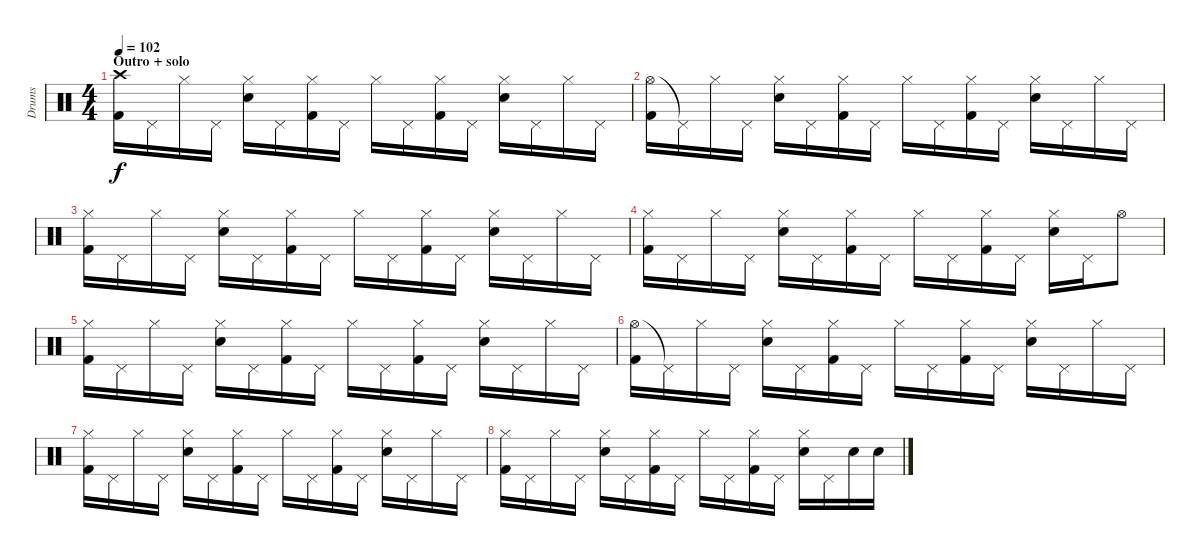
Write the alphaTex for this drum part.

\track ("Drums" "Drums") {instrument percussion}
\staff {score}
\articulation defaults
\ts (4 4)
\section ("" "Outro + solo")
\tempo 102
\clef neutral
\ks c
("Crash high (hit)" "Kick (hit) 2").16{dy f} "Pedal Hi-Hat (hit)".16 "Hi-Hat (closed)".16 "Pedal Hi-Hat (hit)".16 ("Hi-Hat (closed)" "Electric Snare (hit)").16 "Pedal Hi-Hat (hit)".16 ("Hi-Hat (closed)" "Kick (hit) 2").16 "Pedal Hi-Hat (hit)".16 "Hi-Hat (closed)".16 "Pedal Hi-Hat (hit)".16 ("Hi-Hat (closed)" "Kick (hit) 2").16 "Pedal Hi-Hat (hit)".16 ("Hi-Hat (closed)" "Electric Snare (hit)").16 "Pedal Hi-Hat (hit)".16 "Hi-Hat (closed)".16 "Pedal Hi-Hat (hit)".16 |
("Hi-Hat (open)" "Kick (hit) 2").16 "Pedal Hi-Hat (hit)"{t}.16 "Hi-Hat (closed)".16 "Pedal Hi-Hat (hit)".16 ("Hi-Hat (closed)" "Electric Snare (hit)").16 "Pedal Hi-Hat (hit)".16 ("Hi-Hat (closed)" "Kick (hit) 2").16 "Pedal Hi-Hat (hit)".16 "Hi-Hat (closed)".16 "Pedal Hi-Hat (hit)".16 ("Hi-Hat (closed)" "Kick (hit) 2").16 "Pedal Hi-Hat (hit)".16 ("Hi-Hat (closed)" "Electric Snare (hit)").16 "Pedal Hi-Hat (hit)".16 "Hi-Hat (closed)".16 "Pedal Hi-Hat (hit)".16 |
("Hi-Hat (closed)" "Kick (hit) 2").16 "Pedal Hi-Hat (hit)".16 "Hi-Hat (closed)".16 "Pedal Hi-Hat (hit)".16 ("Hi-Hat (closed)" "Electric Snare (hit)").16 "Pedal Hi-Hat (hit)".16 ("Hi-Hat (closed)" "Kick (hit) 2").16 "Pedal Hi-Hat (hit)".16 "Hi-Hat (closed)".16 "Pedal Hi-Hat (hit)".16 ("Hi-Hat (closed)" "Kick (hit) 2").16 "Pedal Hi-Hat (hit)".16 ("Hi-Hat (closed)" "Electric Snare (hit)").16 "Pedal Hi-Hat (hit)".16 "Hi-Hat (closed)".16 "Pedal Hi-Hat (hit)".16 |
("Hi-Hat (closed)" "Kick (hit) 2").16 "Pedal Hi-Hat (hit)".16 "Hi-Hat (closed)".16 "Pedal Hi-Hat (hit)".16 ("Hi-Hat (closed)" "Electric Snare (hit)").16 "Pedal Hi-Hat (hit)".16 ("Hi-Hat (closed)" "Kick (hit) 2").16 "Pedal Hi-Hat (hit)".16 "Hi-Hat (closed)".16 "Pedal Hi-Hat (hit)".16 ("Hi-Hat (closed)" "Kick (hit) 2").16 "Pedal Hi-Hat (hit)".16 ("Hi-Hat (closed)" "Electric Snare (hit)").16 "Pedal Hi-Hat (hit)".16 "Hi-Hat (open)".8 |
("Hi-Hat (closed)" "Kick (hit) 2").16 "Pedal Hi-Hat (hit)".16 "Hi-Hat (closed)".16 "Pedal Hi-Hat (hit)".16 ("Hi-Hat (closed)" "Electric Snare (hit)").16 "Pedal Hi-Hat (hit)".16 ("Hi-Hat (closed)" "Kick (hit) 2").16 "Pedal Hi-Hat (hit)".16 "Hi-Hat (closed)".16 "Pedal Hi-Hat (hit)".16 ("Hi-Hat (closed)" "Kick (hit) 2").16 "Pedal Hi-Hat (hit)".16 ("Hi-Hat (closed)" "Electric Snare (hit)").16 "Pedal Hi-Hat (hit)".16 "Hi-Hat (closed)".16 "Pedal Hi-Hat (hit)".16 |
("Hi-Hat (open)" "Kick (hit) 2").16 "Pedal Hi-Hat (hit)"{t}.16 "Hi-Hat (closed)".16 "Pedal Hi-Hat (hit)".16 ("Hi-Hat (closed)" "Electric Snare (hit)").16 "Pedal Hi-Hat (hit)".16 ("Hi-Hat (closed)" "Kick (hit) 2").16 "Pedal Hi-Hat (hit)".16 "Hi-Hat (closed)".16 "Pedal Hi-Hat (hit)".16 ("Hi-Hat (closed)" "Kick (hit) 2").16 "Pedal Hi-Hat (hit)".16 ("Hi-Hat (closed)" "Electric Snare (hit)").16 "Pedal Hi-Hat (hit)".16 "Hi-Hat (closed)".16 "Pedal Hi-Hat (hit)".16 |
("Hi-Hat (closed)" "Kick (hit) 2").16 "Pedal Hi-Hat (hit)".16 "Hi-Hat (closed)".16 "Pedal Hi-Hat (hit)".16 ("Hi-Hat (closed)" "Electric Snare (hit)").16 "Pedal Hi-Hat (hit)".16 ("Hi-Hat (closed)" "Kick (hit) 2").16 "Pedal Hi-Hat (hit)".16 "Hi-Hat (closed)".16 "Pedal Hi-Hat (hit)".16 ("Hi-Hat (closed)" "Kick (hit) 2").16 "Pedal Hi-Hat (hit)".16 ("Hi-Hat (closed)" "Electric Snare (hit)").16 "Pedal Hi-Hat (hit)".16 "Hi-Hat (closed)".16 "Pedal Hi-Hat (hit)".16 |
("Hi-Hat (closed)" "Kick (hit) 2").16 "Pedal Hi-Hat (hit)".16 "Hi-Hat (closed)".16 "Pedal Hi-Hat (hit)".16 ("Hi-Hat (closed)" "Electric Snare (hit)").16 "Pedal Hi-Hat (hit)".16 ("Hi-Hat (closed)" "Kick (hit) 2").16 "Pedal Hi-Hat (hit)".16 "Hi-Hat (closed)".16 "Pedal Hi-Hat (hit)".16 ("Hi-Hat (closed)" "Kick (hit) 2").16 "Pedal Hi-Hat (hit)".16 ("Hi-Hat (closed)" "Electric Snare (hit)").16 "Pedal Hi-Hat (hit)".16 "Electric Snare (hit)".16 "Electric Snare (hit)".16
